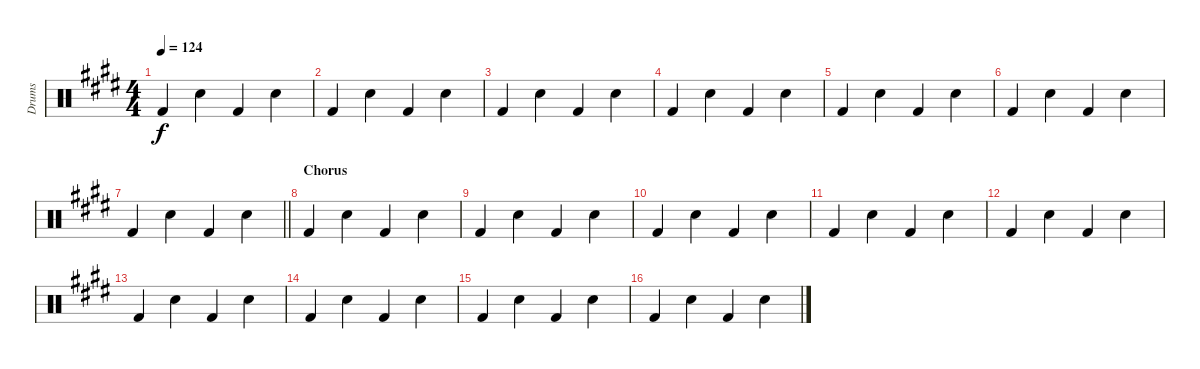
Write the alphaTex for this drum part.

\track ("Drums" "Drums") {instrument percussion}
\staff {score}
\articulation defaults
\ts (4 4)
\tempo 124
\clef neutral
\ks e "Kick (hit) 2".4{dy f} "Snare (hit) 2".4 "Kick (hit) 2".4 "Snare (hit) 2".4
|
"Kick (hit) 2".4 "Snare (hit) 2".4 "Kick (hit) 2".4 "Snare (hit) 2".4 |
"Kick (hit) 2".4 "Snare (hit) 2".4 "Kick (hit) 2".4 "Snare (hit) 2".4 |
"Kick (hit) 2".4 "Snare (hit) 2".4 "Kick (hit) 2".4 "Snare (hit) 2".4 |
"Kick (hit) 2".4 "Snare (hit) 2".4 "Kick (hit) 2".4 "Snare (hit) 2".4 |
"Kick (hit) 2".4 "Snare (hit) 2".4 "Kick (hit) 2".4 "Snare (hit) 2".4 |
\barLineRight lightlight "Kick (hit) 2".4 "Snare (hit) 2".4 "Kick (hit) 2".4 "Snare (hit) 2".4
|
\section ("" "Chorus")
"Kick (hit) 2".4 "Snare (hit) 2".4 "Kick (hit) 2".4 "Snare (hit) 2".4 |
"Kick (hit) 2".4 "Snare (hit) 2".4 "Kick (hit) 2".4 "Snare (hit) 2".4 |
"Kick (hit) 2".4 "Snare (hit) 2".4 "Kick (hit) 2".4 "Snare (hit) 2".4 |
"Kick (hit) 2".4 "Snare (hit) 2".4 "Kick (hit) 2".4 "Snare (hit) 2".4 |
"Kick (hit) 2".4 "Snare (hit) 2".4 "Kick (hit) 2".4 "Snare (hit) 2".4 |
"Kick (hit) 2".4 "Snare (hit) 2".4 "Kick (hit) 2".4 "Snare (hit) 2".4 |
"Kick (hit) 2".4 "Snare (hit) 2".4 "Kick (hit) 2".4 "Snare (hit) 2".4 |
"Kick (hit) 2".4 "Snare (hit) 2".4 "Kick (hit) 2".4 "Snare (hit) 2".4 |
"Kick (hit) 2".4 "Snare (hit) 2".4 "Kick (hit) 2".4 "Snare (hit) 2".4
